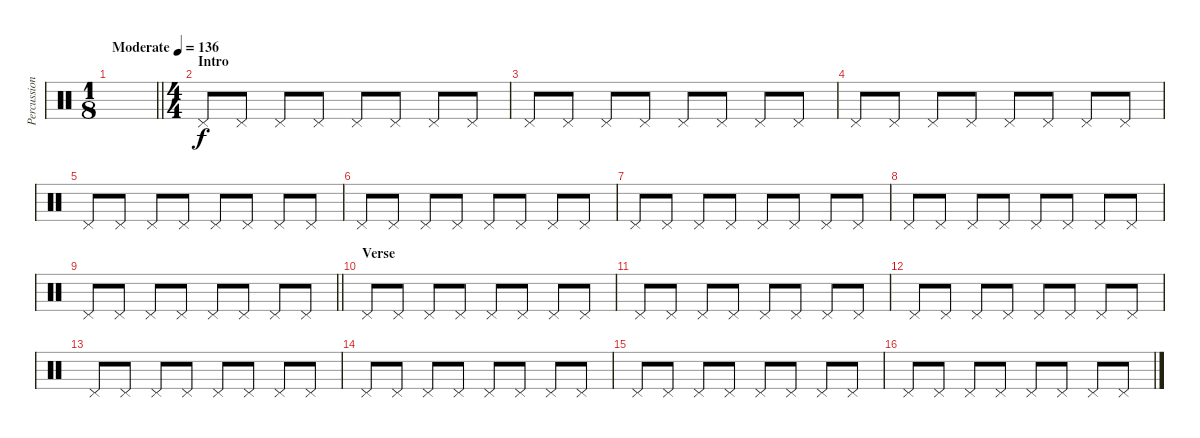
\track ("Percussion" "Percussion") {instrument percussion}
\staff {score}
\articulation defaults
\ts (1 8)
\tempo (136 "Moderate")
\clef neutral
\barLineRight lightlight
\ks c
|
\ts (4 4)
\section ("" "Intro")
"Pedal Hi-Hat (hit)".8 "Pedal Hi-Hat (hit)".8 "Pedal Hi-Hat (hit)".8 "Pedal Hi-Hat (hit)".8 "Pedal Hi-Hat (hit)".8 "Pedal Hi-Hat (hit)".8 "Pedal Hi-Hat (hit)".8 "Pedal Hi-Hat (hit)".8 |
"Pedal Hi-Hat (hit)".8 "Pedal Hi-Hat (hit)".8 "Pedal Hi-Hat (hit)".8 "Pedal Hi-Hat (hit)".8 "Pedal Hi-Hat (hit)".8 "Pedal Hi-Hat (hit)".8 "Pedal Hi-Hat (hit)".8 "Pedal Hi-Hat (hit)".8 |
"Pedal Hi-Hat (hit)".8 "Pedal Hi-Hat (hit)".8 "Pedal Hi-Hat (hit)".8 "Pedal Hi-Hat (hit)".8 "Pedal Hi-Hat (hit)".8 "Pedal Hi-Hat (hit)".8 "Pedal Hi-Hat (hit)".8 "Pedal Hi-Hat (hit)".8 |
"Pedal Hi-Hat (hit)".8 "Pedal Hi-Hat (hit)".8 "Pedal Hi-Hat (hit)".8 "Pedal Hi-Hat (hit)".8 "Pedal Hi-Hat (hit)".8 "Pedal Hi-Hat (hit)".8 "Pedal Hi-Hat (hit)".8 "Pedal Hi-Hat (hit)".8 |
"Pedal Hi-Hat (hit)".8 "Pedal Hi-Hat (hit)".8 "Pedal Hi-Hat (hit)".8 "Pedal Hi-Hat (hit)".8 "Pedal Hi-Hat (hit)".8 "Pedal Hi-Hat (hit)".8 "Pedal Hi-Hat (hit)".8 "Pedal Hi-Hat (hit)".8 |
"Pedal Hi-Hat (hit)".8 "Pedal Hi-Hat (hit)".8 "Pedal Hi-Hat (hit)".8 "Pedal Hi-Hat (hit)".8 "Pedal Hi-Hat (hit)".8 "Pedal Hi-Hat (hit)".8 "Pedal Hi-Hat (hit)".8 "Pedal Hi-Hat (hit)".8 |
"Pedal Hi-Hat (hit)".8 "Pedal Hi-Hat (hit)".8 "Pedal Hi-Hat (hit)".8 "Pedal Hi-Hat (hit)".8 "Pedal Hi-Hat (hit)".8 "Pedal Hi-Hat (hit)".8 "Pedal Hi-Hat (hit)".8 "Pedal Hi-Hat (hit)".8 |
\barLineRight lightlight "Pedal Hi-Hat (hit)".8 "Pedal Hi-Hat (hit)".8 "Pedal Hi-Hat (hit)".8 "Pedal Hi-Hat (hit)".8 "Pedal Hi-Hat (hit)".8 "Pedal Hi-Hat (hit)".8 "Pedal Hi-Hat (hit)".8 "Pedal Hi-Hat (hit)".8
|
\section ("" "Verse")
"Pedal Hi-Hat (hit)".8 "Pedal Hi-Hat (hit)".8 "Pedal Hi-Hat (hit)".8 "Pedal Hi-Hat (hit)".8 "Pedal Hi-Hat (hit)".8 "Pedal Hi-Hat (hit)".8 "Pedal Hi-Hat (hit)".8 "Pedal Hi-Hat (hit)".8 |
"Pedal Hi-Hat (hit)".8 "Pedal Hi-Hat (hit)".8 "Pedal Hi-Hat (hit)".8 "Pedal Hi-Hat (hit)".8 "Pedal Hi-Hat (hit)".8 "Pedal Hi-Hat (hit)".8 "Pedal Hi-Hat (hit)".8 "Pedal Hi-Hat (hit)".8 |
"Pedal Hi-Hat (hit)".8 "Pedal Hi-Hat (hit)".8 "Pedal Hi-Hat (hit)".8 "Pedal Hi-Hat (hit)".8 "Pedal Hi-Hat (hit)".8 "Pedal Hi-Hat (hit)".8 "Pedal Hi-Hat (hit)".8 "Pedal Hi-Hat (hit)".8 |
"Pedal Hi-Hat (hit)".8 "Pedal Hi-Hat (hit)".8 "Pedal Hi-Hat (hit)".8 "Pedal Hi-Hat (hit)".8 "Pedal Hi-Hat (hit)".8 "Pedal Hi-Hat (hit)".8 "Pedal Hi-Hat (hit)".8 "Pedal Hi-Hat (hit)".8 |
"Pedal Hi-Hat (hit)".8 "Pedal Hi-Hat (hit)".8 "Pedal Hi-Hat (hit)".8 "Pedal Hi-Hat (hit)".8 "Pedal Hi-Hat (hit)".8 "Pedal Hi-Hat (hit)".8 "Pedal Hi-Hat (hit)".8 "Pedal Hi-Hat (hit)".8 |
"Pedal Hi-Hat (hit)".8 "Pedal Hi-Hat (hit)".8 "Pedal Hi-Hat (hit)".8 "Pedal Hi-Hat (hit)".8 "Pedal Hi-Hat (hit)".8 "Pedal Hi-Hat (hit)".8 "Pedal Hi-Hat (hit)".8 "Pedal Hi-Hat (hit)".8 |
"Pedal Hi-Hat (hit)".8 "Pedal Hi-Hat (hit)".8 "Pedal Hi-Hat (hit)".8 "Pedal Hi-Hat (hit)".8 "Pedal Hi-Hat (hit)".8 "Pedal Hi-Hat (hit)".8 "Pedal Hi-Hat (hit)".8 "Pedal Hi-Hat (hit)".8
